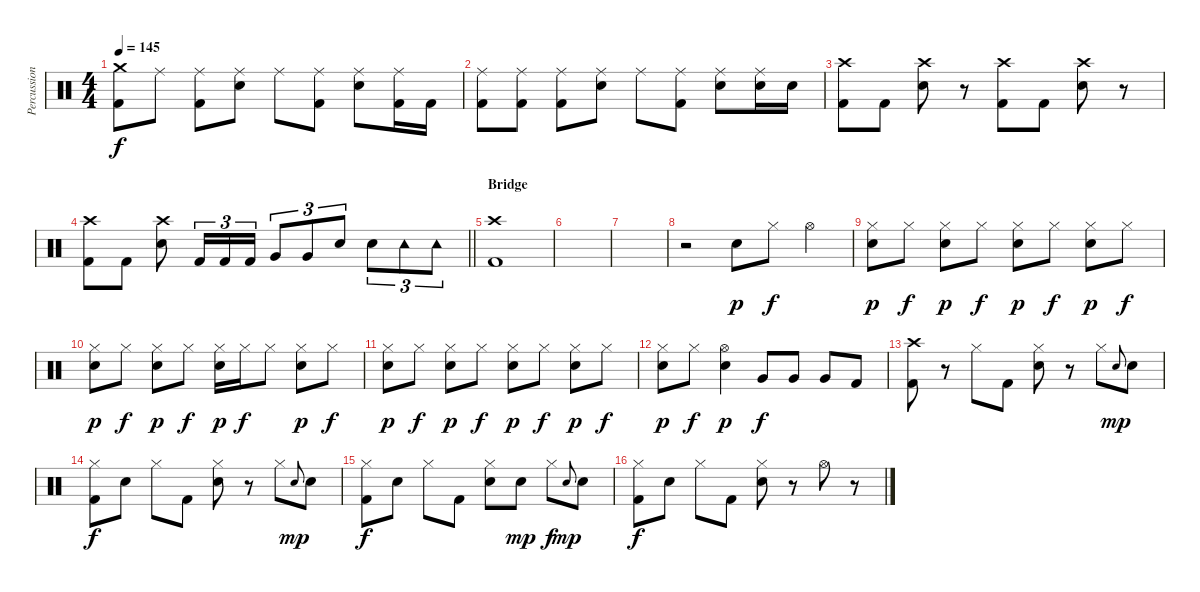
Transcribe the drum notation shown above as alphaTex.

\track ("Percussion" "Percussion") {instrument percussion}
\staff {score}
\articulation defaults
\ts (4 4)
\tempo 145
\clef neutral
\ks c
("Crash medium (hit)" "Kick (hit) 2").8{dy f} "Ride (middle)".8 ("Ride (middle)" "Kick (hit) 2").8 ("Ride (middle)" "Snare (hit) 2").8 "Ride (middle)".8 ("Ride (middle)" "Kick (hit) 2").8 ("Ride (middle)" "Snare (hit) 2").8 ("Ride (middle)" "Kick (hit) 2").16 "Kick (hit) 2".16 |
("Ride (middle)" "Kick (hit) 2").8 ("Ride (middle)" "Kick (hit) 2").8 ("Ride (middle)" "Kick (hit) 2").8 ("Ride (middle)" "Snare (hit) 2").8 "Ride (middle)".8 ("Ride (middle)" "Kick (hit) 2").8 ("Ride (middle)" "Snare (hit) 2").8 ("Ride (middle)" "Snare (hit) 2").16 "Snare (hit) 2".16 |
("Crash high (hit)" "Kick (hit) 2").8 "Kick (hit) 2".8 ("Crash high (hit)" "Snare (hit) 2").8 r.8 ("Crash high (hit)" "Kick (hit) 2").8 "Kick (hit) 2".8 ("Crash high (hit)" "Snare (hit) 2").8 r.8 |
\barLineRight lightlight
("Crash high (hit)" "Kick (hit) 2").8 "Kick (hit) 2".8 ("Crash high (hit)" "Snare (hit) 2").8 "Kick (hit) 2".16{tu (3 2)} "Kick (hit) 2".16{tu (3 2)} "Kick (hit) 2".16{tu (3 2)} "Very Low Tom (hit)".8{tu (3 2)} "Very Low Tom (hit)".8{tu (3 2)} "Snare (hit) 2".8{tu (3 2)} "Snare (hit) 2".8{tu (3 2)} "Tambourine (hit)".8{tu (3 2)} "Tambourine (hit)".8{tu (3 2)} |
\section ("" "Bridge")
("Crash high (hit)" "Kick (hit) 2").1 |
|
|
r.2 "Snare (hit) 2".8{dy p} "Hi-Hat (closed)".8{dy f} "Hi-Hat (open)".4 |
("Hi-Hat (closed)" "Snare (hit) 2").8{dy p} "Hi-Hat (closed)".8{dy f} ("Hi-Hat (closed)" "Snare (hit) 2").8{dy p} "Hi-Hat (closed)".8{dy f} ("Hi-Hat (closed)" "Snare (hit) 2").8{dy p} "Hi-Hat (closed)".8{dy f} ("Hi-Hat (closed)" "Snare (hit) 2").8{dy p} "Hi-Hat (closed)".8{dy f} |
("Hi-Hat (closed)" "Snare (hit) 2").8{dy p} "Hi-Hat (closed)".8{dy f} ("Hi-Hat (closed)" "Snare (hit) 2").8{dy p} "Hi-Hat (closed)".8{dy f} ("Hi-Hat (closed)" "Snare (hit) 2").16{dy p} "Hi-Hat (closed)".16{dy f} "Hi-Hat (closed)".8 ("Hi-Hat (closed)" "Snare (hit) 2").8{dy p} "Hi-Hat (closed)".8{dy f} |
("Hi-Hat (closed)" "Snare (hit) 2").8{dy p} "Hi-Hat (closed)".8{dy f} ("Hi-Hat (closed)" "Snare (hit) 2").8{dy p} "Hi-Hat (closed)".8{dy f} ("Hi-Hat (closed)" "Snare (hit) 2").8{dy p} "Hi-Hat (closed)".8{dy f} ("Hi-Hat (closed)" "Snare (hit) 2").8{dy p} "Hi-Hat (closed)".8{dy f} |
("Hi-Hat (closed)" "Snare (hit) 2").8{dy p} "Hi-Hat (closed)".8{dy f} ("Hi-Hat (open)" "Snare (hit) 2").4{dy p} "Very Low Tom (hit)".8{dy f} "Very Low Tom (hit)".8 "Very Low Tom (hit)".8 "Kick (hit) 2".8 |
("Crash high (hit)" "Kick (hit) 2").8 r.8 "Hi-Hat (closed)".8 "Kick (hit) 2".8 ("Hi-Hat (closed)" "Snare (hit) 2").8 r.8 "Hi-Hat (closed)".8 "Snare (hit) 2".8{gr onbeat dy mp} "Snare (hit) 2".8 |
("Hi-Hat (closed)" "Kick (hit) 2").8{dy f} "Snare (hit) 2".8 "Hi-Hat (closed)".8 "Kick (hit) 2".8 ("Hi-Hat (closed)" "Snare (hit) 2").8 r.8 "Hi-Hat (closed)".8 "Snare (hit) 2".8{gr onbeat dy mp} "Snare (hit) 2".8 |
("Hi-Hat (closed)" "Kick (hit) 2").8{dy f} "Snare (hit) 2".8 "Hi-Hat (closed)".8 "Kick (hit) 2".8 ("Hi-Hat (closed)" "Snare (hit) 2").8 "Snare (hit) 2".8{dy mp} "Hi-Hat (closed)".8{dy f} "Snare (hit) 2".8{gr onbeat dy mp} "Snare (hit) 2".8 |
("Hi-Hat (closed)" "Kick (hit) 2").8{dy f} "Snare (hit) 2".8 "Hi-Hat (closed)".8 "Kick (hit) 2".8 ("Hi-Hat (closed)" "Snare (hit) 2").8 r.8 "Hi-Hat (open)".8 r.8
